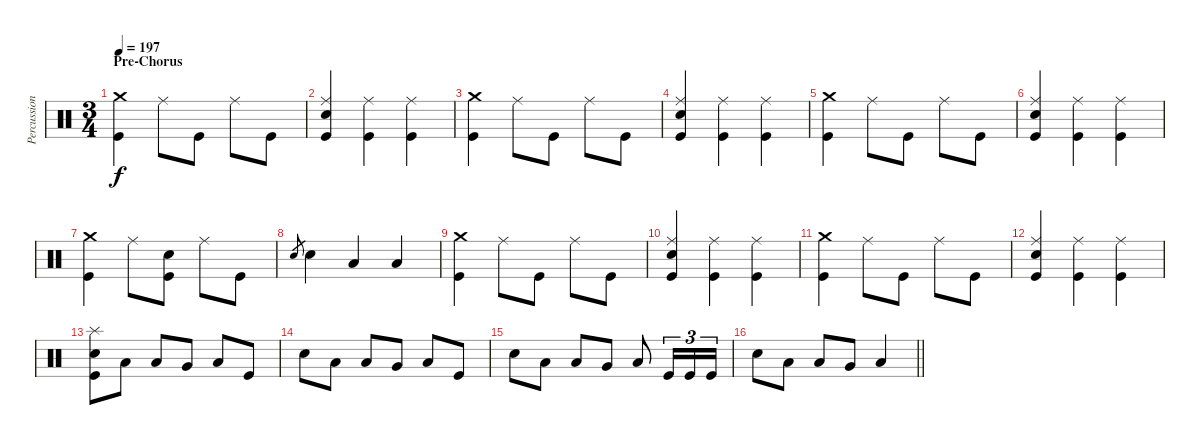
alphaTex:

\track ("Percussion" "Percussion") {instrument percussion}
\staff {score}
\articulation defaults
\ts (3 4)
\section ("" "Pre-Chorus")
\tempo 197
\clef neutral
\ks c
("Crash medium (hit)" "Kick (hit)").4{dy f} "Ride (middle)".8 "Kick (hit)".8 "Ride (middle)".8 "Kick (hit)".8 |
("Ride (middle)" "Electric Snare (hit)" "Kick (hit)").4 ("Ride (middle)" "Kick (hit)").4 ("Ride (middle)" "Kick (hit)").4 |
("Crash medium (hit)" "Kick (hit)").4 "Ride (middle)".8 "Kick (hit)".8 "Ride (middle)".8 "Kick (hit)".8 |
("Ride (middle)" "Electric Snare (hit)" "Kick (hit)").4 ("Ride (middle)" "Kick (hit)").4 ("Ride (middle)" "Kick (hit)").4 |
("Crash medium (hit)" "Kick (hit)").4 "Ride (middle)".8 "Kick (hit)".8 "Ride (middle)".8 "Kick (hit)".8 |
("Ride (middle)" "Electric Snare (hit)" "Kick (hit)").4 ("Ride (middle)" "Kick (hit)").4 ("Ride (middle)" "Kick (hit)").4 |
("Crash medium (hit)" "Kick (hit)").4 "Ride (middle)".8 ("Electric Snare (hit)" "Kick (hit)").8 "Ride (middle)".8 "Kick (hit)".8 |
"Electric Snare (hit)".8{gr} "Electric Snare (hit)".4 "Low Floor Tom (hit)".4 "Low Floor Tom (hit)".4 |
("Crash medium (hit)" "Kick (hit)").4 "Ride (middle)".8 "Kick (hit)".8 "Ride (middle)".8 "Kick (hit)".8 |
("Ride (middle)" "Electric Snare (hit)" "Kick (hit)").4 ("Ride (middle)" "Kick (hit)").4 ("Ride (middle)" "Kick (hit)").4 |
("Crash medium (hit)" "Kick (hit)").4 "Ride (middle)".8 "Kick (hit)".8 "Ride (middle)".8 "Kick (hit)".8 |
("Ride (middle)" "Electric Snare (hit)" "Kick (hit)").4 ("Ride (middle)" "Kick (hit)").4 ("Ride (middle)" "Kick (hit)").4 |
("Splash (hit)" "Electric Snare (hit)" "Kick (hit)").8 "Low Tom (hit)".8 "Low Tom (hit)".8 "Very Low Tom (hit)".8 "Low Tom (hit)".8 "Kick (hit)".8 |
"Electric Snare (hit)".8 "Low Tom (hit)".8 "Low Tom (hit)".8 "Very Low Tom (hit)".8 "Low Tom (hit)".8 "Kick (hit)".8 |
"Electric Snare (hit)".8 "Low Tom (hit)".8 "Low Tom (hit)".8 "Very Low Tom (hit)".8 "Low Tom (hit)".8 "Kick (hit)".16{tu (3 2)} "Kick (hit)".16{tu (3 2)} "Kick (hit)".16{tu (3 2)} |
\barLineRight lightlight "Electric Snare (hit)".8 "Low Tom (hit)".8 "Low Tom (hit)".8 "Very Low Tom (hit)".8 "Low Tom (hit)".4
